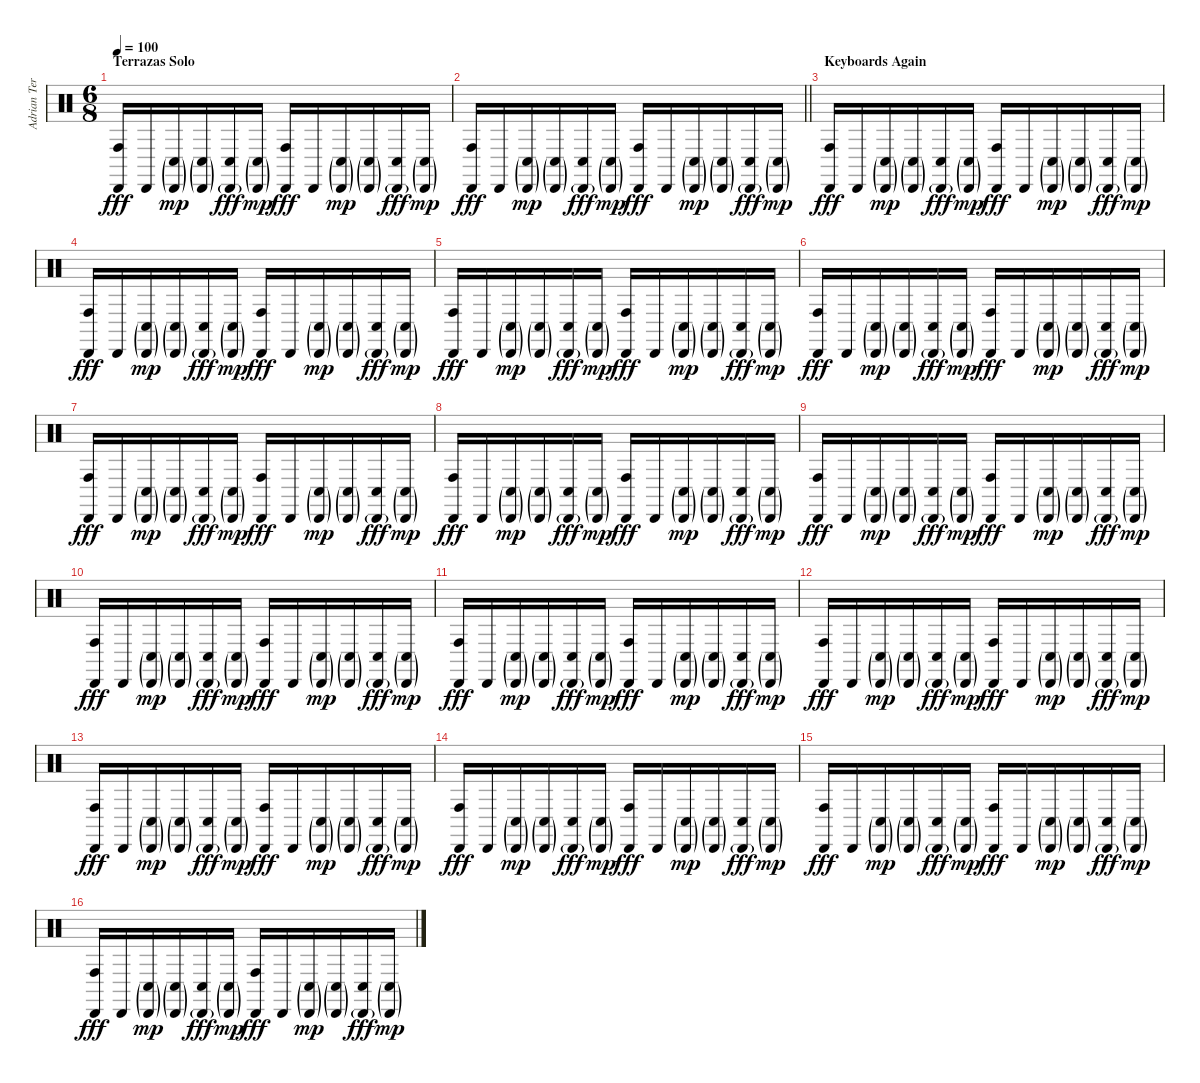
\track ("Adrian Terrazas" "Adrian Ter") {instrument percussion}
\staff {score}
\articulation defaults
\ts (6 8)
\section ("" "Terrazas Solo")
\tempo 100
\clef neutral
\ks c
("Cabasa (hit)" "Conga high (hit)").16{dy fff} "Cabasa (hit)".16 ("Cabasa (hit)"{g} "Conga low (hit)"{g}).16{dy mp} ("Cabasa (hit)"{g} "Conga low (hit)"{g}).16 ("Cabasa (hit)"{g} "Conga low (hit)").16{dy fff} ("Cabasa (hit)"{g} "Conga low (hit)"{g}).16{dy mp} ("Cabasa (hit)" "Conga high (hit)").16{dy fff} "Cabasa (hit)".16 ("Cabasa (hit)"{g} "Conga low (hit)"{g}).16{dy mp} ("Cabasa (hit)"{g} "Conga low (hit)"{g}).16 ("Cabasa (hit)"{g} "Conga low (hit)").16{dy fff} ("Cabasa (hit)"{g} "Conga low (hit)"{g}).16{dy mp} |
\barLineRight lightlight
("Cabasa (hit)" "Conga high (hit)").16{dy fff} "Cabasa (hit)".16 ("Cabasa (hit)"{g} "Conga low (hit)"{g}).16{dy mp} ("Cabasa (hit)"{g} "Conga low (hit)"{g}).16 ("Cabasa (hit)"{g} "Conga low (hit)").16{dy fff} ("Cabasa (hit)"{g} "Conga low (hit)"{g}).16{dy mp} ("Cabasa (hit)" "Conga high (hit)").16{dy fff} "Cabasa (hit)".16 ("Cabasa (hit)"{g} "Conga low (hit)"{g}).16{dy mp} ("Cabasa (hit)"{g} "Conga low (hit)"{g}).16 ("Cabasa (hit)"{g} "Conga low (hit)").16{dy fff} ("Cabasa (hit)"{g} "Conga low (hit)"{g}).16{dy mp} |
\section ("" "Keyboards Again")
("Cabasa (hit)" "Conga high (hit)").16{dy fff} "Cabasa (hit)".16 ("Cabasa (hit)"{g} "Conga low (hit)"{g}).16{dy mp} ("Cabasa (hit)"{g} "Conga low (hit)"{g}).16 ("Cabasa (hit)"{g} "Conga low (hit)").16{dy fff} ("Cabasa (hit)"{g} "Conga low (hit)"{g}).16{dy mp} ("Cabasa (hit)" "Conga high (hit)").16{dy fff} "Cabasa (hit)".16 ("Cabasa (hit)"{g} "Conga low (hit)"{g}).16{dy mp} ("Cabasa (hit)"{g} "Conga low (hit)"{g}).16 ("Cabasa (hit)"{g} "Conga low (hit)").16{dy fff} ("Cabasa (hit)"{g} "Conga low (hit)"{g}).16{dy mp} |
("Cabasa (hit)" "Conga high (hit)").16{dy fff} "Cabasa (hit)".16 ("Cabasa (hit)"{g} "Conga low (hit)"{g}).16{dy mp} ("Cabasa (hit)"{g} "Conga low (hit)"{g}).16 ("Cabasa (hit)"{g} "Conga low (hit)").16{dy fff} ("Cabasa (hit)"{g} "Conga low (hit)"{g}).16{dy mp} ("Cabasa (hit)" "Conga high (hit)").16{dy fff} "Cabasa (hit)".16 ("Cabasa (hit)"{g} "Conga low (hit)"{g}).16{dy mp} ("Cabasa (hit)"{g} "Conga low (hit)"{g}).16 ("Cabasa (hit)"{g} "Conga low (hit)").16{dy fff} ("Cabasa (hit)"{g} "Conga low (hit)"{g}).16{dy mp} |
("Cabasa (hit)" "Conga high (hit)").16{dy fff} "Cabasa (hit)".16 ("Cabasa (hit)"{g} "Conga low (hit)"{g}).16{dy mp} ("Cabasa (hit)"{g} "Conga low (hit)"{g}).16 ("Cabasa (hit)"{g} "Conga low (hit)").16{dy fff} ("Cabasa (hit)"{g} "Conga low (hit)"{g}).16{dy mp} ("Cabasa (hit)" "Conga high (hit)").16{dy fff} "Cabasa (hit)".16 ("Cabasa (hit)"{g} "Conga low (hit)"{g}).16{dy mp} ("Cabasa (hit)"{g} "Conga low (hit)"{g}).16 ("Cabasa (hit)"{g} "Conga low (hit)").16{dy fff} ("Cabasa (hit)"{g} "Conga low (hit)"{g}).16{dy mp} |
("Cabasa (hit)" "Conga high (hit)").16{dy fff} "Cabasa (hit)".16 ("Cabasa (hit)"{g} "Conga low (hit)"{g}).16{dy mp} ("Cabasa (hit)"{g} "Conga low (hit)"{g}).16 ("Cabasa (hit)"{g} "Conga low (hit)").16{dy fff} ("Cabasa (hit)"{g} "Conga low (hit)"{g}).16{dy mp} ("Cabasa (hit)" "Conga high (hit)").16{dy fff} "Cabasa (hit)".16 ("Cabasa (hit)"{g} "Conga low (hit)"{g}).16{dy mp} ("Cabasa (hit)"{g} "Conga low (hit)"{g}).16 ("Cabasa (hit)"{g} "Conga low (hit)").16{dy fff} ("Cabasa (hit)"{g} "Conga low (hit)"{g}).16{dy mp} |
("Cabasa (hit)" "Conga high (hit)").16{dy fff} "Cabasa (hit)".16 ("Cabasa (hit)"{g} "Conga low (hit)"{g}).16{dy mp} ("Cabasa (hit)"{g} "Conga low (hit)"{g}).16 ("Cabasa (hit)"{g} "Conga low (hit)").16{dy fff} ("Cabasa (hit)"{g} "Conga low (hit)"{g}).16{dy mp} ("Cabasa (hit)" "Conga high (hit)").16{dy fff} "Cabasa (hit)".16 ("Cabasa (hit)"{g} "Conga low (hit)"{g}).16{dy mp} ("Cabasa (hit)"{g} "Conga low (hit)"{g}).16 ("Cabasa (hit)"{g} "Conga low (hit)").16{dy fff} ("Cabasa (hit)"{g} "Conga low (hit)"{g}).16{dy mp} |
("Cabasa (hit)" "Conga high (hit)").16{dy fff} "Cabasa (hit)".16 ("Cabasa (hit)"{g} "Conga low (hit)"{g}).16{dy mp} ("Cabasa (hit)"{g} "Conga low (hit)"{g}).16 ("Cabasa (hit)"{g} "Conga low (hit)").16{dy fff} ("Cabasa (hit)"{g} "Conga low (hit)"{g}).16{dy mp} ("Cabasa (hit)" "Conga high (hit)").16{dy fff} "Cabasa (hit)".16 ("Cabasa (hit)"{g} "Conga low (hit)"{g}).16{dy mp} ("Cabasa (hit)"{g} "Conga low (hit)"{g}).16 ("Cabasa (hit)"{g} "Conga low (hit)").16{dy fff} ("Cabasa (hit)"{g} "Conga low (hit)"{g}).16{dy mp} |
("Cabasa (hit)" "Conga high (hit)").16{dy fff} "Cabasa (hit)".16 ("Cabasa (hit)"{g} "Conga low (hit)"{g}).16{dy mp} ("Cabasa (hit)"{g} "Conga low (hit)"{g}).16 ("Cabasa (hit)"{g} "Conga low (hit)").16{dy fff} ("Cabasa (hit)"{g} "Conga low (hit)"{g}).16{dy mp} ("Cabasa (hit)" "Conga high (hit)").16{dy fff} "Cabasa (hit)".16 ("Cabasa (hit)"{g} "Conga low (hit)"{g}).16{dy mp} ("Cabasa (hit)"{g} "Conga low (hit)"{g}).16 ("Cabasa (hit)"{g} "Conga low (hit)").16{dy fff} ("Cabasa (hit)"{g} "Conga low (hit)"{g}).16{dy mp} |
("Cabasa (hit)" "Conga high (hit)").16{dy fff} "Cabasa (hit)".16 ("Cabasa (hit)"{g} "Conga low (hit)"{g}).16{dy mp} ("Cabasa (hit)"{g} "Conga low (hit)"{g}).16 ("Cabasa (hit)"{g} "Conga low (hit)").16{dy fff} ("Cabasa (hit)"{g} "Conga low (hit)"{g}).16{dy mp} ("Cabasa (hit)" "Conga high (hit)").16{dy fff} "Cabasa (hit)".16 ("Cabasa (hit)"{g} "Conga low (hit)"{g}).16{dy mp} ("Cabasa (hit)"{g} "Conga low (hit)"{g}).16 ("Cabasa (hit)"{g} "Conga low (hit)").16{dy fff} ("Cabasa (hit)"{g} "Conga low (hit)"{g}).16{dy mp} |
("Cabasa (hit)" "Conga high (hit)").16{dy fff} "Cabasa (hit)".16 ("Cabasa (hit)"{g} "Conga low (hit)"{g}).16{dy mp} ("Cabasa (hit)"{g} "Conga low (hit)"{g}).16 ("Cabasa (hit)"{g} "Conga low (hit)").16{dy fff} ("Cabasa (hit)"{g} "Conga low (hit)"{g}).16{dy mp} ("Cabasa (hit)" "Conga high (hit)").16{dy fff} "Cabasa (hit)".16 ("Cabasa (hit)"{g} "Conga low (hit)"{g}).16{dy mp} ("Cabasa (hit)"{g} "Conga low (hit)"{g}).16 ("Cabasa (hit)"{g} "Conga low (hit)").16{dy fff} ("Cabasa (hit)"{g} "Conga low (hit)"{g}).16{dy mp} |
("Cabasa (hit)" "Conga high (hit)").16{dy fff} "Cabasa (hit)".16 ("Cabasa (hit)"{g} "Conga low (hit)"{g}).16{dy mp} ("Cabasa (hit)"{g} "Conga low (hit)"{g}).16 ("Cabasa (hit)"{g} "Conga low (hit)").16{dy fff} ("Cabasa (hit)"{g} "Conga low (hit)"{g}).16{dy mp} ("Cabasa (hit)" "Conga high (hit)").16{dy fff} "Cabasa (hit)".16 ("Cabasa (hit)"{g} "Conga low (hit)"{g}).16{dy mp} ("Cabasa (hit)"{g} "Conga low (hit)"{g}).16 ("Cabasa (hit)"{g} "Conga low (hit)").16{dy fff} ("Cabasa (hit)"{g} "Conga low (hit)"{g}).16{dy mp} |
("Cabasa (hit)" "Conga high (hit)").16{dy fff} "Cabasa (hit)".16 ("Cabasa (hit)"{g} "Conga low (hit)"{g}).16{dy mp} ("Cabasa (hit)"{g} "Conga low (hit)"{g}).16 ("Cabasa (hit)"{g} "Conga low (hit)").16{dy fff} ("Cabasa (hit)"{g} "Conga low (hit)"{g}).16{dy mp} ("Cabasa (hit)" "Conga high (hit)").16{dy fff} "Cabasa (hit)".16 ("Cabasa (hit)"{g} "Conga low (hit)"{g}).16{dy mp} ("Cabasa (hit)"{g} "Conga low (hit)"{g}).16 ("Cabasa (hit)"{g} "Conga low (hit)").16{dy fff} ("Cabasa (hit)"{g} "Conga low (hit)"{g}).16{dy mp} |
("Cabasa (hit)" "Conga high (hit)").16{dy fff} "Cabasa (hit)".16 ("Cabasa (hit)"{g} "Conga low (hit)"{g}).16{dy mp} ("Cabasa (hit)"{g} "Conga low (hit)"{g}).16 ("Cabasa (hit)"{g} "Conga low (hit)").16{dy fff} ("Cabasa (hit)"{g} "Conga low (hit)"{g}).16{dy mp} ("Cabasa (hit)" "Conga high (hit)").16{dy fff} "Cabasa (hit)".16 ("Cabasa (hit)"{g} "Conga low (hit)"{g}).16{dy mp} ("Cabasa (hit)"{g} "Conga low (hit)"{g}).16 ("Cabasa (hit)"{g} "Conga low (hit)").16{dy fff} ("Cabasa (hit)"{g} "Conga low (hit)"{g}).16{dy mp} |
("Cabasa (hit)" "Conga high (hit)").16{dy fff} "Cabasa (hit)".16 ("Cabasa (hit)"{g} "Conga low (hit)"{g}).16{dy mp} ("Cabasa (hit)"{g} "Conga low (hit)"{g}).16 ("Cabasa (hit)"{g} "Conga low (hit)").16{dy fff} ("Cabasa (hit)"{g} "Conga low (hit)"{g}).16{dy mp} ("Cabasa (hit)" "Conga high (hit)").16{dy fff} "Cabasa (hit)".16 ("Cabasa (hit)"{g} "Conga low (hit)"{g}).16{dy mp} ("Cabasa (hit)"{g} "Conga low (hit)"{g}).16 ("Cabasa (hit)"{g} "Conga low (hit)").16{dy fff} ("Cabasa (hit)"{g} "Conga low (hit)"{g}).16{dy mp} |
("Cabasa (hit)" "Conga high (hit)").16{dy fff} "Cabasa (hit)".16 ("Cabasa (hit)"{g} "Conga low (hit)"{g}).16{dy mp} ("Cabasa (hit)"{g} "Conga low (hit)"{g}).16 ("Cabasa (hit)"{g} "Conga low (hit)").16{dy fff} ("Cabasa (hit)"{g} "Conga low (hit)"{g}).16{dy mp} ("Cabasa (hit)" "Conga high (hit)").16{dy fff} "Cabasa (hit)".16 ("Cabasa (hit)"{g} "Conga low (hit)"{g}).16{dy mp} ("Cabasa (hit)"{g} "Conga low (hit)"{g}).16 ("Cabasa (hit)"{g} "Conga low (hit)").16{dy fff} ("Cabasa (hit)"{g} "Conga low (hit)"{g}).16{dy mp}
